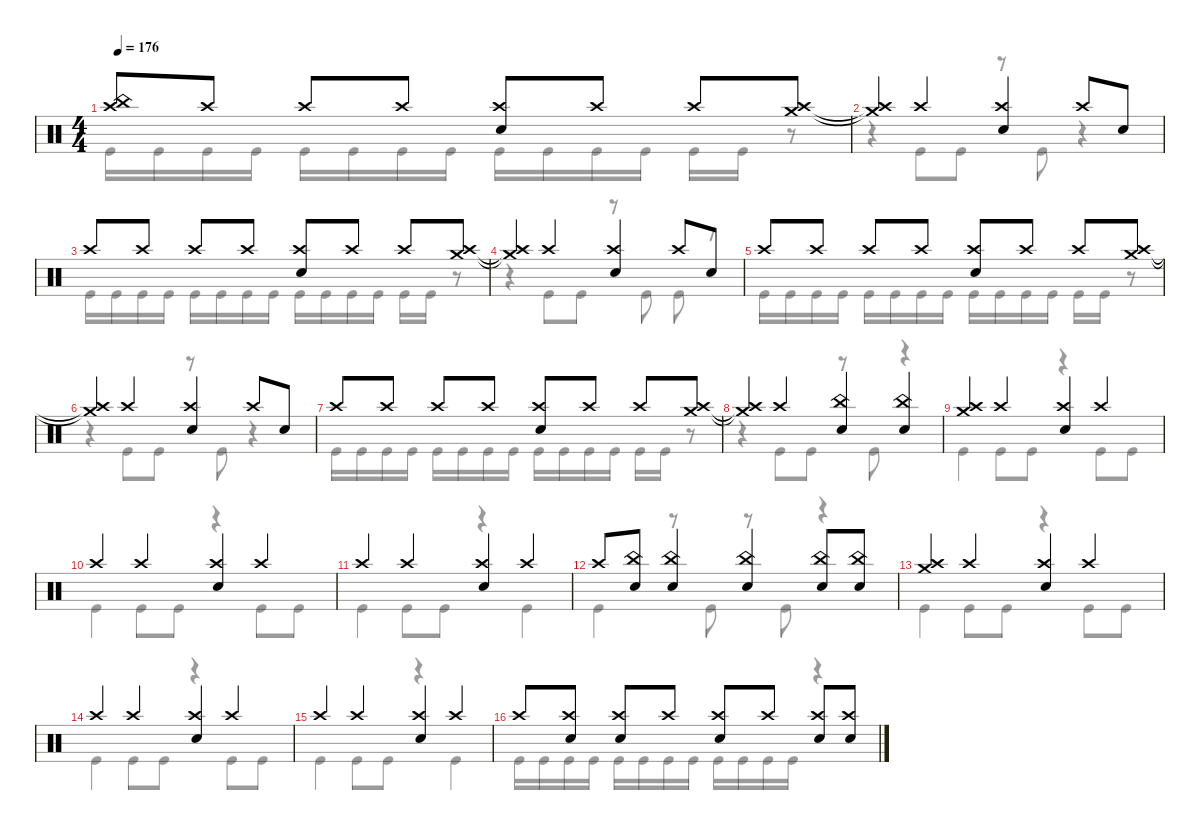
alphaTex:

\defaultSystemsLayout 4
\hideDynamics
\bracketExtendMode nobrackets
\singleTrackTrackNamePolicy hidden
\multiTrackTrackNamePolicy hidden
\firstSystemTrackNameMode fullname
\firstSystemTrackNameOrientation horizontal
\otherSystemsTrackNameOrientation horizontal
\track ("Drums" "drm.") {instrument percussion}
\staff {score}
\articulation defaults
\voice
\ts (4 4)
\tempo 176
\clef neutral
\ks c
("Crash high (hit)" "China (hit)").8{dy f beam Up} "Crash high (hit)".8{beam Up} "Crash high (hit)".8{beam Up} "Crash high (hit)".8{beam Up} ("Snare (hit) 2" "Crash high (hit)").8{beam Up} "Crash high (hit)".8{beam Up} "Crash high (hit)".8{beam Up} ("Crash high (hit)" "Crash medium (hit)").8{beam Up} |
("Crash high (hit)"{t} "Crash medium (hit)"{t}).4{dy mf beam Up} "Crash high (hit)".4{dy f beam Up} ("Snare (hit) 2" "Crash high (hit)").4{beam Up} "Crash high (hit)".8{beam Up} "Snare (hit) 2".8{beam Up} |
"Crash high (hit)".8{beam Up} "Crash high (hit)".8{beam Up} "Crash high (hit)".8{beam Up} "Crash high (hit)".8{beam Up} ("Snare (hit) 2" "Crash high (hit)").8{beam Up} "Crash high (hit)".8{beam Up} "Crash high (hit)".8{beam Up} ("Crash high (hit)" "Crash medium (hit)").8{beam Up} |
("Crash high (hit)"{t} "Crash medium (hit)"{t}).4{dy mf beam Up} "Crash high (hit)".4{dy f beam Up} ("Snare (hit) 2" "Crash high (hit)").4{beam Up} "Crash high (hit)".8{beam Up} "Snare (hit) 2".8{beam Up} |
"Crash high (hit)".8{beam Up} "Crash high (hit)".8{beam Up} "Crash high (hit)".8{beam Up} "Crash high (hit)".8{beam Up} ("Snare (hit) 2" "Crash high (hit)").8{beam Up} "Crash high (hit)".8{beam Up} "Crash high (hit)".8{beam Up} ("Crash high (hit)" "Crash medium (hit)").8{beam Up} |
("Crash high (hit)"{t} "Crash medium (hit)"{t}).4{dy mf beam Up} "Crash high (hit)".4{dy f beam Up} ("Snare (hit) 2" "Crash high (hit)").4{beam Up} "Crash high (hit)".8{beam Up} "Snare (hit) 2".8{beam Up} |
"Crash high (hit)".8{beam Up} "Crash high (hit)".8{beam Up} "Crash high (hit)".8{beam Up} "Crash high (hit)".8{beam Up} ("Snare (hit) 2" "Crash high (hit)").8{beam Up} "Crash high (hit)".8{beam Up} "Crash high (hit)".8{beam Up} ("Crash high (hit)" "Crash medium (hit)").8{beam Up} |
("Crash high (hit)"{t} "Crash medium (hit)"{t}).4{dy mf beam Up} "Crash high (hit)".4{dy f beam Up} ("Snare (hit) 2" "China (hit)").4{beam Up} ("China (hit)" "Snare (hit) 2").4{beam Up} |
("Crash medium (hit)" "Crash high (hit)").4{beam Up} "Crash high (hit)".4{beam Up} ("Crash high (hit)" "Snare (hit) 2").4{beam Up} "Crash high (hit)".4{beam Up} |
"Crash high (hit)".4{beam Up} "Crash high (hit)".4{beam Up} ("Crash high (hit)" "Snare (hit) 2").4{beam Up} "Crash high (hit)".4{beam Up} |
"Crash high (hit)".4{beam Up} "Crash high (hit)".4{beam Up} ("Crash high (hit)" "Snare (hit) 2").4{beam Up} "Crash high (hit)".4{beam Up} |
"Crash high (hit)".8{beam Up} ("Snare (hit) 2" "China (hit)").8{beam Up} ("Snare (hit) 2" "China (hit)").4{beam Up} ("Snare (hit) 2" "China (hit)").4{beam Up} ("Snare (hit) 2" "China (hit)").8{beam Up} ("Snare (hit) 2" "China (hit)").8{beam Up} |
("Crash medium (hit)" "Crash high (hit)").4{beam Up} "Crash high (hit)".4{beam Up} ("Crash high (hit)" "Snare (hit) 2").4{beam Up} "Crash high (hit)".4{beam Up} |
"Crash high (hit)".4{beam Up} "Crash high (hit)".4{beam Up} ("Crash high (hit)" "Snare (hit) 2").4{beam Up} "Crash high (hit)".4{beam Up} |
"Crash high (hit)".4{beam Up} "Crash high (hit)".4{beam Up} ("Crash high (hit)" "Snare (hit) 2").4{beam Up} "Crash high (hit)".4{beam Up} |
"Crash high (hit)".8{beam Up} ("Snare (hit) 2" "Crash high (hit)").8{beam Up} ("Snare (hit) 2" "Crash high (hit)").8{beam Up} "Crash high (hit)".8{beam Up} ("Snare (hit) 2" "Crash high (hit)").8{beam Up} "Crash high (hit)".8{beam Up} ("Snare (hit) 2" "Crash high (hit)").8{beam Up} ("Snare (hit) 2" "Crash high (hit)").8{beam Up}
\voice
\clef neutral
\ottava regular
\simile none
\ks c "Kick (hit)".16{dy f beam Down} "Kick (hit)".16{beam Down} "Kick (hit)".16{beam Down} "Kick (hit)".16{beam Down} "Kick (hit)".16{beam Down} "Kick (hit)".16{beam Down} "Kick (hit)".16{beam Down} "Kick (hit)".16{beam Down} "Kick (hit)".16{beam Down} "Kick (hit)".16{beam Down} "Kick (hit)".16{beam Down} "Kick (hit)".16{beam Down} "Kick (hit)".16{beam Down} "Kick (hit)".16{beam Down}
r.8{beam Down} |
r.4{beam Down} "Kick (hit)".8{beam Down} "Kick (hit)".8{beam Down} r.8{beam Down} "Kick (hit)".8{beam Down} r.4{beam Down} |
"Kick (hit)".16{beam Down} "Kick (hit)".16{beam Down} "Kick (hit)".16{beam Down} "Kick (hit)".16{beam Down} "Kick (hit)".16{beam Down} "Kick (hit)".16{beam Down} "Kick (hit)".16{beam Down} "Kick (hit)".16{beam Down} "Kick (hit)".16{beam Down} "Kick (hit)".16{beam Down} "Kick (hit)".16{beam Down} "Kick (hit)".16{beam Down} "Kick (hit)".16{beam Down} "Kick (hit)".16{beam Down} r.8{beam Down} |
r.4{beam Down} "Kick (hit)".8{beam Down} "Kick (hit)".8{beam Down} r.8{beam Down} "Kick (hit)".8{beam Down} "Kick (hit)".8{beam Down} r.8{beam Down} |
"Kick (hit)".16{beam Down} "Kick (hit)".16{beam Down} "Kick (hit)".16{beam Down} "Kick (hit)".16{beam Down} "Kick (hit)".16{beam Down} "Kick (hit)".16{beam Down} "Kick (hit)".16{beam Down} "Kick (hit)".16{beam Down} "Kick (hit)".16{beam Down} "Kick (hit)".16{beam Down} "Kick (hit)".16{beam Down} "Kick (hit)".16{beam Down} "Kick (hit)".16{beam Down} "Kick (hit)".16{beam Down} r.8{beam Down} |
r.4{beam Down} "Kick (hit)".8{beam Down} "Kick (hit)".8{beam Down} r.8{beam Down} "Kick (hit)".8{beam Down} r.4{beam Down} |
"Kick (hit)".16{beam Down} "Kick (hit)".16{beam Down} "Kick (hit)".16{beam Down} "Kick (hit)".16{beam Down} "Kick (hit)".16{beam Down} "Kick (hit)".16{beam Down} "Kick (hit)".16{beam Down} "Kick (hit)".16{beam Down} "Kick (hit)".16{beam Down} "Kick (hit)".16{beam Down} "Kick (hit)".16{beam Down} "Kick (hit)".16{beam Down} "Kick (hit)".16{beam Down} "Kick (hit)".16{beam Down} r.8{beam Down} |
r.4{beam Down} "Kick (hit)".8{beam Down} "Kick (hit)".8{beam Down} r.8{beam Down} "Kick (hit)".8{beam Down} r.4{beam Down} |
"Kick (hit)".4{beam Down} "Kick (hit)".8{beam Down} "Kick (hit)".8{beam Down} r.4{beam Down} "Kick (hit)".8{beam Down} "Kick (hit)".8{beam Down} |
"Kick (hit)".4{beam Down} "Kick (hit)".8{beam Down} "Kick (hit)".8{beam Down} r.4{beam Down} "Kick (hit)".8{beam Down} "Kick (hit)".8{beam Down} |
"Kick (hit)".4{beam Down} "Kick (hit)".8{beam Down} "Kick (hit)".8{beam Down} r.4{beam Down} "Kick (hit)".4{beam Down} |
"Kick (hit)".4{beam Down} r.8{beam Down} "Kick (hit)".8{beam Down} r.8{beam Down} "Kick (hit)".8{beam Down} r.4{beam Down} |
"Kick (hit)".4{beam Down} "Kick (hit)".8{beam Down} "Kick (hit)".8{beam Down} r.4{beam Down} "Kick (hit)".8{beam Down} "Kick (hit)".8{beam Down} |
"Kick (hit)".4{beam Down} "Kick (hit)".8{beam Down} "Kick (hit)".8{beam Down} r.4{beam Down} "Kick (hit)".8{beam Down} "Kick (hit)".8{beam Down} |
"Kick (hit)".4{beam Down} "Kick (hit)".8{beam Down} "Kick (hit)".8{beam Down} r.4{beam Down} "Kick (hit)".4{beam Down} |
"Kick (hit)".16{beam Down} "Kick (hit)".16{beam Down} "Kick (hit)".16{beam Down} "Kick (hit)".16{beam Down} "Kick (hit)".16{beam Down} "Kick (hit)".16{beam Down} "Kick (hit)".16{beam Down} "Kick (hit)".16{beam Down} "Kick (hit)".16{beam Down} "Kick (hit)".16{beam Down} "Kick (hit)".16{beam Down} "Kick (hit)".16{beam Down} r.4{beam Down}
